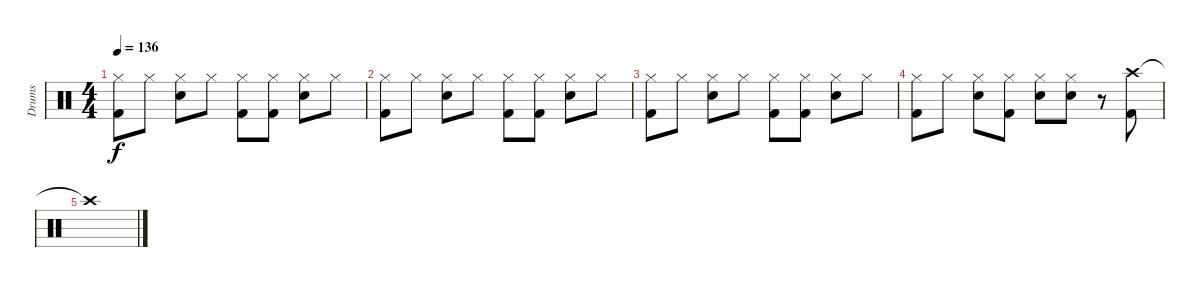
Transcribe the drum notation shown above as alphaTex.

\track ("Drums" "Drums") {instrument percussion}
\staff {score}
\articulation defaults
\ts (4 4)
\tempo 136
\clef neutral
\ks c
("Hi-Hat (closed)" "Kick (hit) 2").8{dy f} "Hi-Hat (closed)".8 ("Hi-Hat (closed)" "Snare (hit) 2").8 "Hi-Hat (closed)".8 ("Hi-Hat (closed)" "Kick (hit) 2").8 ("Hi-Hat (closed)" "Kick (hit) 2").8 ("Hi-Hat (closed)" "Snare (hit) 2").8 "Hi-Hat (closed)".8 |
("Hi-Hat (closed)" "Kick (hit) 2").8 "Hi-Hat (closed)".8 ("Hi-Hat (closed)" "Snare (hit) 2").8 "Hi-Hat (closed)".8 ("Hi-Hat (closed)" "Kick (hit) 2").8 ("Hi-Hat (closed)" "Kick (hit) 2").8 ("Hi-Hat (closed)" "Snare (hit) 2").8 "Hi-Hat (closed)".8 |
("Hi-Hat (closed)" "Kick (hit) 2").8 "Hi-Hat (closed)".8 ("Hi-Hat (closed)" "Snare (hit) 2").8 "Hi-Hat (closed)".8 ("Hi-Hat (closed)" "Kick (hit) 2").8 ("Hi-Hat (closed)" "Kick (hit) 2").8 ("Hi-Hat (closed)" "Snare (hit) 2").8 "Hi-Hat (closed)".8 |
("Hi-Hat (closed)" "Kick (hit) 2").8 "Hi-Hat (closed)".8 ("Hi-Hat (closed)" "Snare (hit) 2").8 ("Hi-Hat (closed)" "Kick (hit) 2").8 ("Hi-Hat (closed)" "Snare (hit) 2").8 ("Hi-Hat (closed)" "Snare (hit) 2").8 r.8 ("Crash high (hit)" "Kick (hit) 2").8 |
"Crash high (hit)"{t}.1
